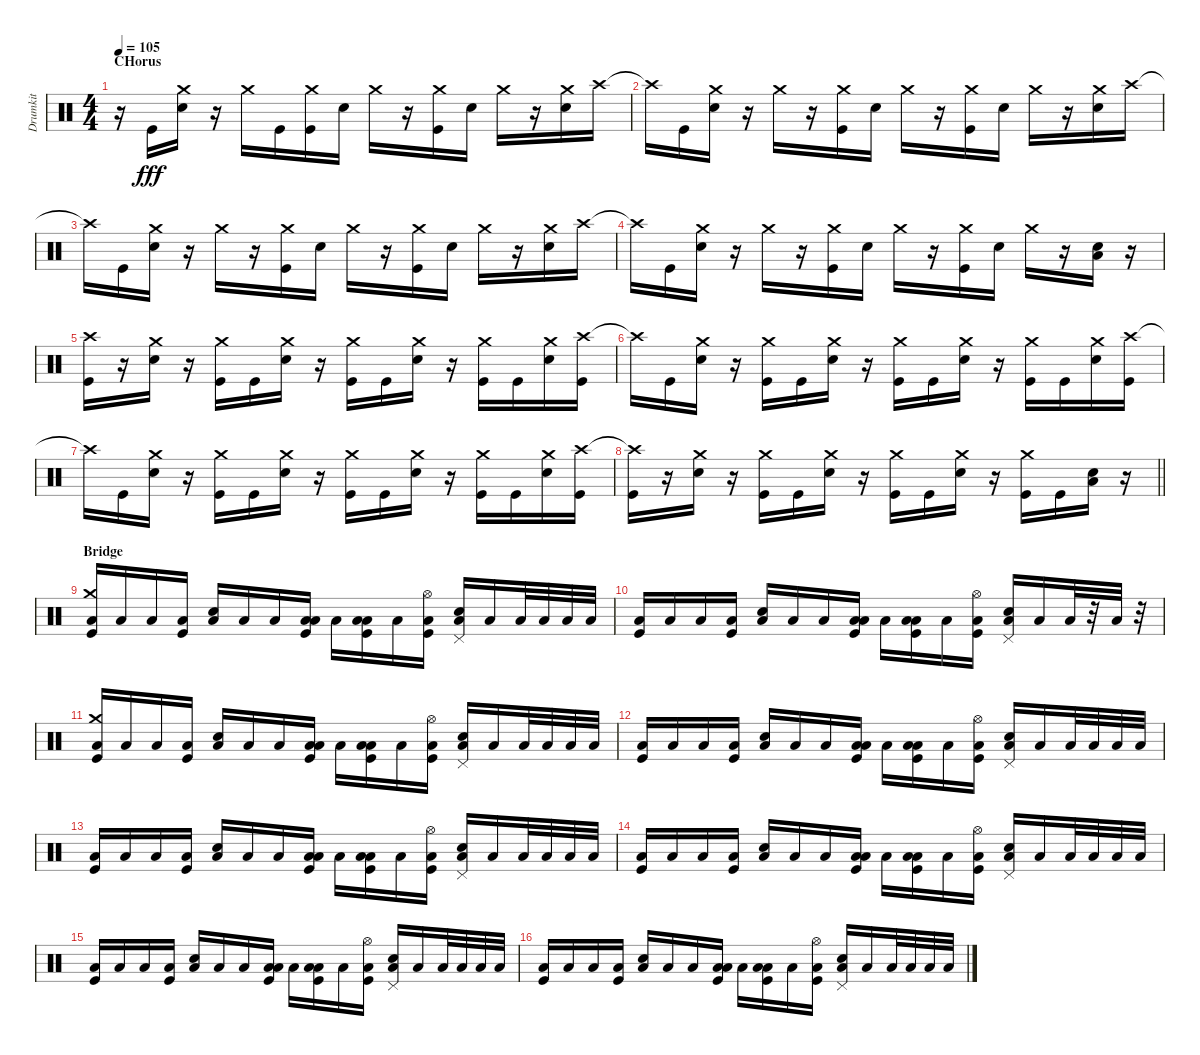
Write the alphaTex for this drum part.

\track ("Drumkit" "Drumkit") {instrument percussion}
\staff {score}
\articulation defaults
\ts (4 4)
\section ("" "CHorus")
\tempo 105
\clef neutral
\ks c
r.16{dy fff} "Kick (hit)".16 ("Crash medium (hit)" "Snare (hit) 2").16 r.16 "Crash medium (hit)".16 "Kick (hit)".16 ("Crash medium (hit)" "Kick (hit)").16 "Snare (hit) 2".16 "Crash medium (hit)".16 r.16 ("Crash medium (hit)" "Kick (hit)").16 "Snare (hit) 2".16 "Crash medium (hit)".16 r.16 ("Crash medium (hit)" "Snare (hit) 2").16 "Crash high (hit)".16 |
"Crash high (hit)"{t}.16 "Kick (hit)".16 ("Crash medium (hit)" "Snare (hit) 2").16 r.16 "Crash medium (hit)".16 r.16 ("Crash medium (hit)" "Kick (hit)").16 "Snare (hit) 2".16 "Crash medium (hit)".16 r.16 ("Crash medium (hit)" "Kick (hit)").16 "Snare (hit) 2".16 "Crash medium (hit)".16 r.16 ("Crash medium (hit)" "Snare (hit) 2").16 "Crash high (hit)".16 |
"Crash high (hit)"{t}.16 "Kick (hit)".16 ("Crash medium (hit)" "Snare (hit) 2").16 r.16 "Crash medium (hit)".16 r.16 ("Crash medium (hit)" "Kick (hit)").16 "Snare (hit) 2".16 "Crash medium (hit)".16 r.16 ("Crash medium (hit)" "Kick (hit)").16 "Snare (hit) 2".16 "Crash medium (hit)".16 r.16 ("Crash medium (hit)" "Snare (hit) 2").16 "Crash high (hit)".16 |
"Crash high (hit)"{t}.16 "Kick (hit)".16 ("Crash medium (hit)" "Snare (hit) 2").16 r.16 "Crash medium (hit)".16 r.16 ("Crash medium (hit)" "Kick (hit)").16 "Snare (hit) 2".16 "Crash medium (hit)".16 r.16 ("Crash medium (hit)" "Kick (hit)").16 "Snare (hit) 2".16 "Crash medium (hit)".16 r.16 ("Low Tom (hit)" "Snare (hit) 2").16 r.16 |
("Crash high (hit)" "Kick (hit)").16 r.16 ("Crash medium (hit)" "Snare (hit) 2").16 r.16 ("Crash medium (hit)" "Kick (hit)").16 "Kick (hit)".16 ("Crash medium (hit)" "Snare (hit) 2").16 r.16 ("Crash medium (hit)" "Kick (hit)").16 "Kick (hit)".16 ("Crash medium (hit)" "Snare (hit) 2").16 r.16 ("Crash medium (hit)" "Kick (hit)").16 "Kick (hit)".16 ("Crash medium (hit)" "Snare (hit) 2").16 ("Crash high (hit)" "Kick (hit)").16 |
"Crash high (hit)"{t}.16 "Kick (hit)".16 ("Crash medium (hit)" "Snare (hit) 2").16 r.16 ("Crash medium (hit)" "Kick (hit)").16 "Kick (hit)".16 ("Crash medium (hit)" "Snare (hit) 2").16 r.16 ("Crash medium (hit)" "Kick (hit)").16 "Kick (hit)".16 ("Crash medium (hit)" "Snare (hit) 2").16 r.16 ("Crash medium (hit)" "Kick (hit)").16 "Kick (hit)".16 ("Crash medium (hit)" "Snare (hit) 2").16 ("Crash high (hit)" "Kick (hit)").16 |
"Crash high (hit)"{t}.16 "Kick (hit)".16 ("Crash medium (hit)" "Snare (hit) 2").16 r.16 ("Crash medium (hit)" "Kick (hit)").16 "Kick (hit)".16 ("Crash medium (hit)" "Snare (hit) 2").16 r.16 ("Crash medium (hit)" "Kick (hit)").16 "Kick (hit)".16 ("Crash medium (hit)" "Snare (hit) 2").16 r.16 ("Crash medium (hit)" "Kick (hit)").16 "Kick (hit)".16 ("Crash medium (hit)" "Snare (hit) 2").16 ("Crash high (hit)" "Kick (hit)").16 |
\barLineRight lightlight
("Crash high (hit)"{t} "Kick (hit)").16 r.16 ("Crash medium (hit)" "Snare (hit) 2").16 r.16 ("Crash medium (hit)" "Kick (hit)").16 "Kick (hit)".16 ("Crash medium (hit)" "Snare (hit) 2").16 r.16 ("Crash medium (hit)" "Kick (hit)").16 "Kick (hit)".16 ("Crash medium (hit)" "Snare (hit) 2").16 r.16 ("Crash medium (hit)" "Kick (hit)").16 "Kick (hit)".16 ("Low Tom (hit)" "Snare (hit) 2").16 r.16 |
\section ("" "Bridge")
("Crash medium (hit)" "Low Floor Tom (hit)" "Kick (hit)").16 "Low Floor Tom (hit)".16 "Low Floor Tom (hit)".16 ("Low Floor Tom (hit)" "Kick (hit)").16 ("Snare (hit) 2" "Low Floor Tom (hit)").16 "Low Floor Tom (hit)".16 "Low Floor Tom (hit)".16 ("Low Tom (hit)" "Low Floor Tom (hit)" "Kick (hit)").16 "Low Floor Tom (hit)".16 ("Low Tom (hit)" "Low Floor Tom (hit)" "Kick (hit)").16 "Low Floor Tom (hit)".16 ("Hi-Hat (open)" "Low Floor Tom (hit)" "Kick (hit)").16 ("Pedal Hi-Hat (hit)" "Snare (hit) 2" "Low Floor Tom (hit)").16 "Low Floor Tom (hit)".16 "Low Floor Tom (hit)".32 "Low Floor Tom (hit)".32 "Low Floor Tom (hit)".32 "Low Floor Tom (hit)".32 |
("Low Floor Tom (hit)" "Kick (hit)").16 "Low Floor Tom (hit)".16 "Low Floor Tom (hit)".16 ("Low Floor Tom (hit)" "Kick (hit)").16 ("Snare (hit) 2" "Low Floor Tom (hit)").16 "Low Floor Tom (hit)".16 "Low Floor Tom (hit)".16 ("Low Tom (hit)" "Low Floor Tom (hit)" "Kick (hit)").16 "Low Floor Tom (hit)".16 ("Low Tom (hit)" "Low Floor Tom (hit)" "Kick (hit)").16 "Low Floor Tom (hit)".16 ("Hi-Hat (open)" "Low Floor Tom (hit)" "Kick (hit)").16 ("Pedal Hi-Hat (hit)" "Snare (hit) 2" "Low Floor Tom (hit)").16 "Low Floor Tom (hit)".16 "Low Floor Tom (hit)".32 r.32 "Low Floor Tom (hit)".32 r.32 |
("Crash medium (hit)" "Low Floor Tom (hit)" "Kick (hit)").16 "Low Floor Tom (hit)".16 "Low Floor Tom (hit)".16 ("Low Floor Tom (hit)" "Kick (hit)").16 ("Snare (hit) 2" "Low Floor Tom (hit)").16 "Low Floor Tom (hit)".16 "Low Floor Tom (hit)".16 ("Low Tom (hit)" "Low Floor Tom (hit)" "Kick (hit)").16 "Low Floor Tom (hit)".16 ("Low Tom (hit)" "Low Floor Tom (hit)" "Kick (hit)").16 "Low Floor Tom (hit)".16 ("Hi-Hat (open)" "Low Floor Tom (hit)" "Kick (hit)").16 ("Pedal Hi-Hat (hit)" "Snare (hit) 2" "Low Floor Tom (hit)").16 "Low Floor Tom (hit)".16 "Low Floor Tom (hit)".32 "Low Floor Tom (hit)".32 "Low Floor Tom (hit)".32 "Low Floor Tom (hit)".32 |
("Low Floor Tom (hit)" "Kick (hit)").16 "Low Floor Tom (hit)".16 "Low Floor Tom (hit)".16 ("Low Floor Tom (hit)" "Kick (hit)").16 ("Snare (hit) 2" "Low Floor Tom (hit)").16 "Low Floor Tom (hit)".16 "Low Floor Tom (hit)".16 ("Low Tom (hit)" "Low Floor Tom (hit)" "Kick (hit)").16 "Low Floor Tom (hit)".16 ("Low Tom (hit)" "Low Floor Tom (hit)" "Kick (hit)").16 "Low Floor Tom (hit)".16 ("Hi-Hat (open)" "Low Floor Tom (hit)" "Kick (hit)").16 ("Pedal Hi-Hat (hit)" "Snare (hit) 2" "Low Floor Tom (hit)").16 "Low Floor Tom (hit)".16 "Low Floor Tom (hit)".32 "Low Floor Tom (hit)".32 "Low Floor Tom (hit)".32 "Low Floor Tom (hit)".32 |
("Low Floor Tom (hit)" "Kick (hit)").16 "Low Floor Tom (hit)".16 "Low Floor Tom (hit)".16 ("Low Floor Tom (hit)" "Kick (hit)").16 ("Snare (hit) 2" "Low Floor Tom (hit)").16 "Low Floor Tom (hit)".16 "Low Floor Tom (hit)".16 ("Low Tom (hit)" "Low Floor Tom (hit)" "Kick (hit)").16 "Low Floor Tom (hit)".16 ("Low Tom (hit)" "Low Floor Tom (hit)" "Kick (hit)").16 "Low Floor Tom (hit)".16 ("Hi-Hat (open)" "Low Floor Tom (hit)" "Kick (hit)").16 ("Pedal Hi-Hat (hit)" "Snare (hit) 2" "Low Floor Tom (hit)").16 "Low Floor Tom (hit)".16 "Low Floor Tom (hit)".32 "Low Floor Tom (hit)".32 "Low Floor Tom (hit)".32 "Low Floor Tom (hit)".32 |
("Low Floor Tom (hit)" "Kick (hit)").16 "Low Floor Tom (hit)".16 "Low Floor Tom (hit)".16 ("Low Floor Tom (hit)" "Kick (hit)").16 ("Snare (hit) 2" "Low Floor Tom (hit)").16 "Low Floor Tom (hit)".16 "Low Floor Tom (hit)".16 ("Low Tom (hit)" "Low Floor Tom (hit)" "Kick (hit)").16 "Low Floor Tom (hit)".16 ("Low Tom (hit)" "Low Floor Tom (hit)" "Kick (hit)").16 "Low Floor Tom (hit)".16 ("Hi-Hat (open)" "Low Floor Tom (hit)" "Kick (hit)").16 ("Pedal Hi-Hat (hit)" "Snare (hit) 2" "Low Floor Tom (hit)").16 "Low Floor Tom (hit)".16 "Low Floor Tom (hit)".32 "Low Floor Tom (hit)".32 "Low Floor Tom (hit)".32 "Low Floor Tom (hit)".32 |
("Low Floor Tom (hit)" "Kick (hit)").16 "Low Floor Tom (hit)".16 "Low Floor Tom (hit)".16 ("Low Floor Tom (hit)" "Kick (hit)").16 ("Snare (hit) 2" "Low Floor Tom (hit)").16 "Low Floor Tom (hit)".16 "Low Floor Tom (hit)".16 ("Low Tom (hit)" "Low Floor Tom (hit)" "Kick (hit)").16 "Low Floor Tom (hit)".16 ("Low Tom (hit)" "Low Floor Tom (hit)" "Kick (hit)").16 "Low Floor Tom (hit)".16 ("Hi-Hat (open)" "Low Floor Tom (hit)" "Kick (hit)").16 ("Pedal Hi-Hat (hit)" "Snare (hit) 2" "Low Floor Tom (hit)").16 "Low Floor Tom (hit)".16 "Low Floor Tom (hit)".32 "Low Floor Tom (hit)".32 "Low Floor Tom (hit)".32 "Low Floor Tom (hit)".32 |
("Low Floor Tom (hit)" "Kick (hit)").16 "Low Floor Tom (hit)".16 "Low Floor Tom (hit)".16 ("Low Floor Tom (hit)" "Kick (hit)").16 ("Snare (hit) 2" "Low Floor Tom (hit)").16 "Low Floor Tom (hit)".16 "Low Floor Tom (hit)".16 ("Low Tom (hit)" "Low Floor Tom (hit)" "Kick (hit)").16 "Low Floor Tom (hit)".16 ("Low Tom (hit)" "Low Floor Tom (hit)" "Kick (hit)").16 "Low Floor Tom (hit)".16 ("Hi-Hat (open)" "Low Floor Tom (hit)" "Kick (hit)").16 ("Pedal Hi-Hat (hit)" "Snare (hit) 2" "Low Floor Tom (hit)").16 "Low Floor Tom (hit)".16 "Low Floor Tom (hit)".32 "Low Floor Tom (hit)".32 "Low Floor Tom (hit)".32 "Low Floor Tom (hit)".32
